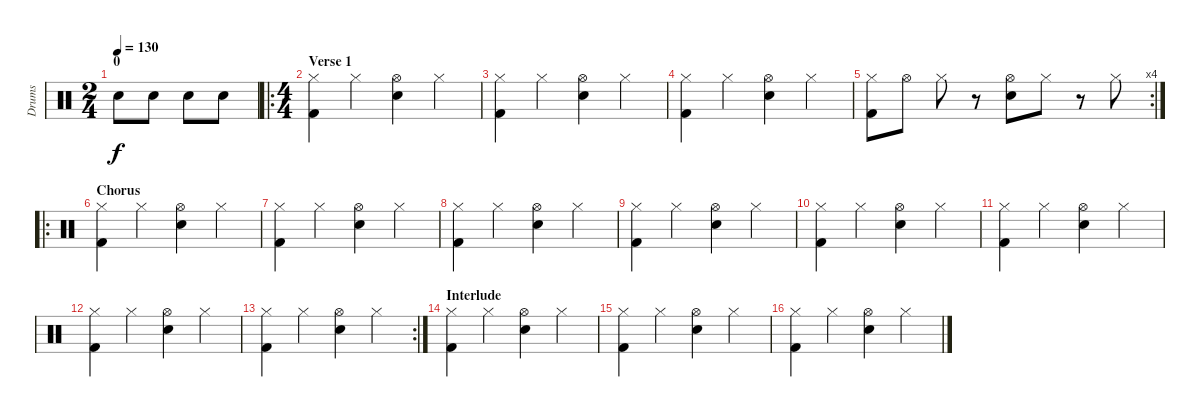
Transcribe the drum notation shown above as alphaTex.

\track ("Drums" "Drums") {instrument percussion}
\staff {score}
\articulation defaults
\ts (2 4)
\section ("" "0")
\tempo 130
\clef neutral
\ks c "Snare (hit) 2".8{dy f} "Snare (hit) 2".8 "Snare (hit) 2".8 "Snare (hit) 2".8
|
\ro
\ts (4 4)
\section ("" "Verse 1")
("Kick (hit) 2" "Hi-Hat (closed)").4 "Hi-Hat (closed)".4 ("Hi-Hat (open)" "Snare (hit) 2").4 "Hi-Hat (closed)".4 |
("Kick (hit) 2" "Hi-Hat (closed)").4 "Hi-Hat (closed)".4 ("Hi-Hat (open)" "Snare (hit) 2").4 "Hi-Hat (closed)".4 |
("Kick (hit) 2" "Hi-Hat (closed)").4 "Hi-Hat (closed)".4 ("Hi-Hat (open)" "Snare (hit) 2").4 "Hi-Hat (closed)".4 |
\rc 4
("Kick (hit) 2" "Hi-Hat (closed)").8 "Hi-Hat (open)".8 "Hi-Hat (closed)".8 r.8 ("Hi-Hat (open)" "Snare (hit) 2").8 "Hi-Hat (closed)".8 r.8 "Hi-Hat (closed)".8 |
\ro
\section ("" "Chorus")
("Kick (hit) 2" "Hi-Hat (closed)").4 "Hi-Hat (closed)".4 ("Hi-Hat (open)" "Snare (hit) 2").4 "Hi-Hat (closed)".4 |
("Kick (hit) 2" "Hi-Hat (closed)").4 "Hi-Hat (closed)".4 ("Hi-Hat (open)" "Snare (hit) 2").4 "Hi-Hat (closed)".4 |
("Kick (hit) 2" "Hi-Hat (closed)").4 "Hi-Hat (closed)".4 ("Hi-Hat (open)" "Snare (hit) 2").4 "Hi-Hat (closed)".4 |
("Kick (hit) 2" "Hi-Hat (closed)").4 "Hi-Hat (closed)".4 ("Hi-Hat (open)" "Snare (hit) 2").4 "Hi-Hat (closed)".4 |
("Kick (hit) 2" "Hi-Hat (closed)").4 "Hi-Hat (closed)".4 ("Hi-Hat (open)" "Snare (hit) 2").4 "Hi-Hat (closed)".4 |
("Kick (hit) 2" "Hi-Hat (closed)").4 "Hi-Hat (closed)".4 ("Hi-Hat (open)" "Snare (hit) 2").4 "Hi-Hat (closed)".4 |
("Kick (hit) 2" "Hi-Hat (closed)").4 "Hi-Hat (closed)".4 ("Hi-Hat (open)" "Snare (hit) 2").4 "Hi-Hat (closed)".4 |
\rc 2
("Kick (hit) 2" "Hi-Hat (closed)").4 "Hi-Hat (closed)".4 ("Hi-Hat (open)" "Snare (hit) 2").4 "Hi-Hat (closed)".4 |
\section ("" "Interlude")
("Kick (hit) 2" "Hi-Hat (closed)").4 "Hi-Hat (closed)".4 ("Hi-Hat (open)" "Snare (hit) 2").4 "Hi-Hat (closed)".4 |
("Kick (hit) 2" "Hi-Hat (closed)").4 "Hi-Hat (closed)".4 ("Hi-Hat (open)" "Snare (hit) 2").4 "Hi-Hat (closed)".4 |
("Kick (hit) 2" "Hi-Hat (closed)").4 "Hi-Hat (closed)".4 ("Hi-Hat (open)" "Snare (hit) 2").4 "Hi-Hat (closed)".4
